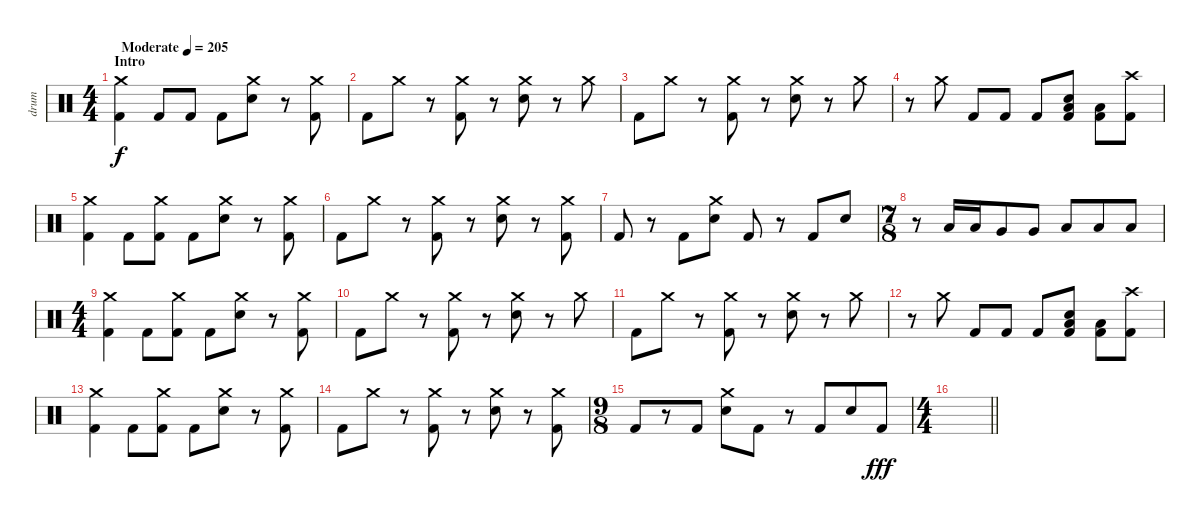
\track ("drum" "drum") {instrument percussion}
\staff {score}
\articulation defaults
\ts (4 4)
\section ("" "Intro")
\tempo (205 "Moderate")
\clef neutral
\ks c
("Crash medium (hit)" "Kick (hit) 2").4{dy f} "Kick (hit) 2".8 "Kick (hit) 2".8 "Kick (hit) 2".8 ("Crash medium (hit)" "Electric Snare (hit)").8 r.8 ("Crash medium (hit)" "Kick (hit) 2").8 |
"Kick (hit) 2".8 "Crash medium (hit)".8 r.8 ("Crash medium (hit)" "Kick (hit) 2").8 r.8 ("Crash medium (hit)" "Electric Snare (hit)").8 r.8 "Crash medium (hit)".8 |
"Kick (hit) 2".8 "Crash medium (hit)".8 r.8 ("Crash medium (hit)" "Kick (hit) 2").8 r.8 ("Crash medium (hit)" "Electric Snare (hit)").8 r.8 "Crash medium (hit)".8 |
r.8 "Crash medium (hit)".8 "Kick (hit) 2".8 "Kick (hit) 2".8 "Kick (hit) 2".8 ("Electric Snare (hit)" "Low Floor Tom (hit)" "Kick (hit) 2").8 ("Low Floor Tom (hit)" "Kick (hit) 2").8 ("Crash high (hit)" "Kick (hit) 2").8 |
("Crash medium (hit)" "Kick (hit) 2").4 "Kick (hit) 2".8 ("Crash medium (hit)" "Kick (hit) 2").8 "Kick (hit) 2".8 ("Crash medium (hit)" "Electric Snare (hit)").8 r.8 ("Crash medium (hit)" "Kick (hit) 2").8 |
"Kick (hit) 2".8 "Crash medium (hit)".8 r.8 ("Crash medium (hit)" "Kick (hit) 2").8 r.8 ("Crash medium (hit)" "Electric Snare (hit)").8 r.8 ("Crash medium (hit)" "Kick (hit) 2").8 |
"Kick (hit) 2".8 r.8 "Kick (hit) 2".8 ("Crash medium (hit)" "Electric Snare (hit)").8 "Kick (hit) 2".8 r.8 "Kick (hit) 2".8 "Electric Snare (hit)".8 |
\ts (7 8)
r.8 "Low Tom (hit)".16 "Low Tom (hit)".16 "Very Low Tom (hit)".8 "Very Low Tom (hit)".8 "Low Floor Tom (hit)".8 "Low Floor Tom (hit)".8 "Low Floor Tom (hit)".8 |
\ts (4 4)
("Crash medium (hit)" "Kick (hit) 2").4 "Kick (hit) 2".8 ("Crash medium (hit)" "Kick (hit) 2").8 "Kick (hit) 2".8 ("Crash medium (hit)" "Electric Snare (hit)").8 r.8 ("Crash medium (hit)" "Kick (hit) 2").8 |
"Kick (hit) 2".8 "Crash medium (hit)".8 r.8 ("Crash medium (hit)" "Kick (hit) 2").8 r.8 ("Crash medium (hit)" "Electric Snare (hit)").8 r.8 "Crash medium (hit)".8 |
"Kick (hit) 2".8 "Crash medium (hit)".8 r.8 ("Crash medium (hit)" "Kick (hit) 2").8 r.8 ("Crash medium (hit)" "Electric Snare (hit)").8 r.8 "Crash medium (hit)".8 |
r.8 "Crash medium (hit)".8 "Kick (hit) 2".8 "Kick (hit) 2".8 "Kick (hit) 2".8 ("Electric Snare (hit)" "Low Floor Tom (hit)" "Kick (hit) 2").8 ("Low Floor Tom (hit)" "Kick (hit) 2").8 ("Crash high (hit)" "Kick (hit) 2").8 |
("Crash medium (hit)" "Kick (hit) 2").4 "Kick (hit) 2".8 ("Crash medium (hit)" "Kick (hit) 2").8 "Kick (hit) 2".8 ("Crash medium (hit)" "Electric Snare (hit)").8 r.8 ("Crash medium (hit)" "Kick (hit) 2").8 |
"Kick (hit) 2".8 "Crash medium (hit)".8 r.8 ("Crash medium (hit)" "Kick (hit) 2").8 r.8 ("Crash medium (hit)" "Electric Snare (hit)").8 r.8 ("Crash medium (hit)" "Kick (hit) 2").8 |
\ts (9 8)
"Kick (hit) 2".8 r.8 "Kick (hit) 2".8 ("Crash medium (hit)" "Electric Snare (hit)").8 "Kick (hit) 2".8 r.8 "Kick (hit) 2".8 "Electric Snare (hit)".8 "Kick (hit) 2".8{dy fff} |
\ts (4 4)
\barLineRight lightlight
